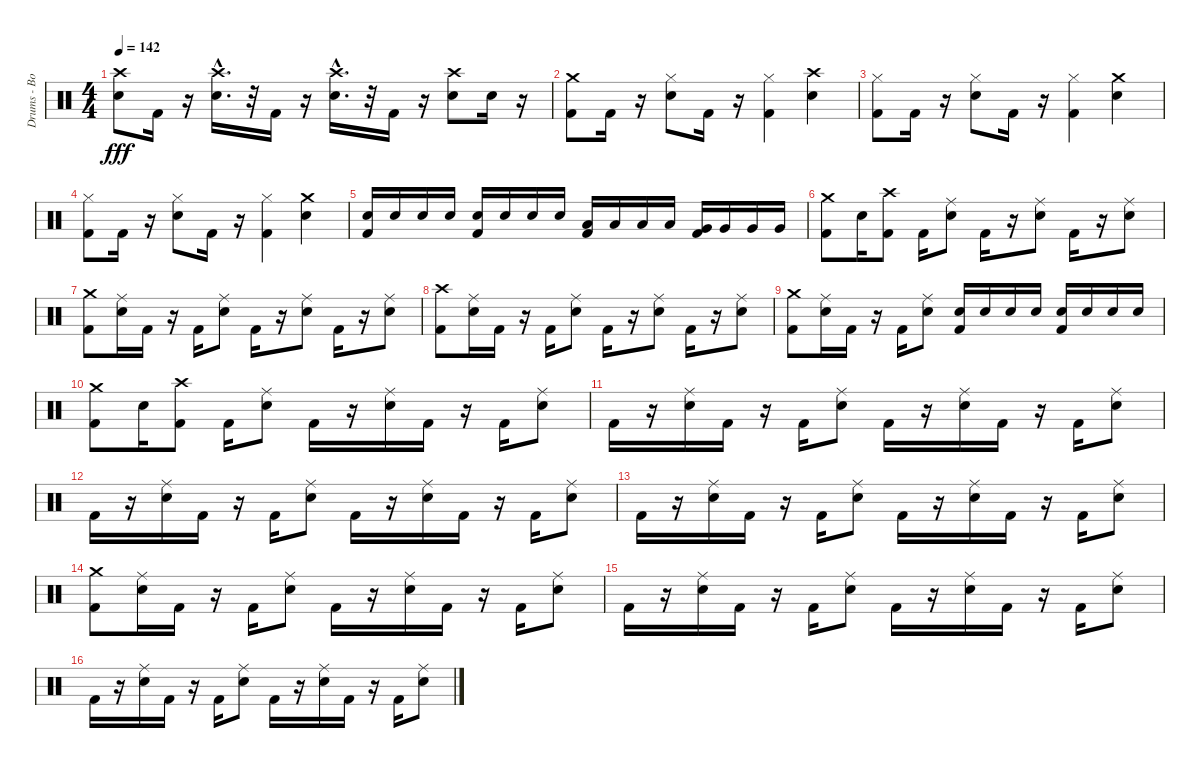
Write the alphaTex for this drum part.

\track ("Drums - Bobby Schayer" "Drums - Bo") {instrument percussion}
\staff {score}
\articulation defaults
\ts (4 4)
\tempo 142
\clef neutral
\ks c
("Electric Snare (hit)" "Crash high (hit)").8{dy fff} "Kick (hit) 2".16 r.16 ("Electric Snare (hit)" "Crash high (hit)"{hac}).16{d} r.32 "Kick (hit) 2".16 r.16 ("Electric Snare (hit)" "Crash high (hit)"{hac}).16{d} r.32 "Kick (hit) 2".16 r.16 ("Electric Snare (hit)" "Crash high (hit)").8 "Electric Snare (hit)".16 r.16 |
("Kick (hit) 2" "Crash medium (hit)").8 "Kick (hit) 2".16 r.16 ("Electric Snare (hit)" "Hi-Hat (closed)").8 "Kick (hit) 2".16 r.16 ("Kick (hit) 2" "Hi-Hat (closed)").4 ("Electric Snare (hit)" "Crash high (hit)").4 |
("Kick (hit) 2" "Hi-Hat (closed)").8 "Kick (hit) 2".16 r.16 ("Electric Snare (hit)" "Hi-Hat (closed)").8 "Kick (hit) 2".16 r.16 ("Kick (hit) 2" "Hi-Hat (closed)").4 ("Electric Snare (hit)" "Crash medium (hit)").4 |
("Kick (hit) 2" "Hi-Hat (closed)").8 "Kick (hit) 2".16 r.16 ("Electric Snare (hit)" "Hi-Hat (closed)").8 "Kick (hit) 2".16 r.16 ("Kick (hit) 2" "Hi-Hat (closed)").4 ("Electric Snare (hit)" "Crash medium (hit)").4 |
("Electric Snare (hit)" "Kick (hit) 2").16 "Electric Snare (hit)".16 "Electric Snare (hit)".16 "Electric Snare (hit)".16 ("Electric Snare (hit)" "Kick (hit) 2").16 "Electric Snare (hit)".16 "Electric Snare (hit)".16 "Electric Snare (hit)".16 ("Low Tom (hit)" "Kick (hit) 2").16 "Low Tom (hit)".16 "Low Tom (hit)".16 "Low Tom (hit)".16 ("Very Low Tom (hit)" "Kick (hit) 2").16 "Very Low Tom (hit)".16 "Very Low Tom (hit)".16 "Very Low Tom (hit)".16 |
("Kick (hit) 2" "Crash medium (hit)").8 "Electric Snare (hit)".16 ("Kick (hit) 2" "Crash high (hit)").8 "Kick (hit) 2".16 ("Electric Snare (hit)" "Ride (middle)").8 "Kick (hit) 2".16 r.16 ("Electric Snare (hit)" "Ride (middle)").8 "Kick (hit) 2".16 r.16 ("Electric Snare (hit)" "Ride (middle)").8 |
("Kick (hit) 2" "Crash medium (hit)").8 ("Electric Snare (hit)" "Ride (middle)").16 "Kick (hit) 2".16 r.16 "Kick (hit) 2".16 ("Electric Snare (hit)" "Ride (middle)").8 "Kick (hit) 2".16 r.16 ("Electric Snare (hit)" "Ride (middle)").8 "Kick (hit) 2".16 r.16 ("Electric Snare (hit)" "Ride (middle)").8 |
("Kick (hit) 2" "Crash high (hit)").8 ("Electric Snare (hit)" "Ride (middle)").16 "Kick (hit) 2".16 r.16 "Kick (hit) 2".16 ("Electric Snare (hit)" "Ride (middle)").8 "Kick (hit) 2".16 r.16 ("Electric Snare (hit)" "Ride (middle)").8 "Kick (hit) 2".16 r.16 ("Electric Snare (hit)" "Ride (middle)").8 |
("Kick (hit) 2" "Crash medium (hit)").8 ("Electric Snare (hit)" "Ride (middle)").16 "Kick (hit) 2".16 r.16 "Kick (hit) 2".16 ("Electric Snare (hit)" "Ride (middle)").8 ("Electric Snare (hit)" "Kick (hit) 2").16 "Electric Snare (hit)".16 "Electric Snare (hit)".16 "Electric Snare (hit)".16 ("Electric Snare (hit)" "Kick (hit) 2").16 "Electric Snare (hit)".16 "Electric Snare (hit)".16 "Electric Snare (hit)".16 |
("Kick (hit) 2" "Crash medium (hit)").8 "Electric Snare (hit)".16 ("Kick (hit) 2" "Crash high (hit)").8 "Kick (hit) 2".16 ("Electric Snare (hit)" "Ride (middle)").8 "Kick (hit) 2".16 r.16 ("Electric Snare (hit)" "Ride (middle)").16 "Kick (hit) 2".16 r.16 "Kick (hit) 2".16 ("Electric Snare (hit)" "Ride (middle)").8 |
"Kick (hit) 2".16 r.16 ("Electric Snare (hit)" "Ride (middle)").16 "Kick (hit) 2".16 r.16 "Kick (hit) 2".16 ("Electric Snare (hit)" "Ride (middle)").8 "Kick (hit) 2".16 r.16 ("Electric Snare (hit)" "Ride (middle)").16 "Kick (hit) 2".16 r.16 "Kick (hit) 2".16 ("Electric Snare (hit)" "Ride (middle)").8 |
"Kick (hit) 2".16 r.16 ("Electric Snare (hit)" "Ride (middle)").16 "Kick (hit) 2".16 r.16 "Kick (hit) 2".16 ("Electric Snare (hit)" "Ride (middle)").8 "Kick (hit) 2".16 r.16 ("Electric Snare (hit)" "Ride (middle)").16 "Kick (hit) 2".16 r.16 "Kick (hit) 2".16 ("Electric Snare (hit)" "Ride (middle)").8 |
"Kick (hit) 2".16 r.16 ("Electric Snare (hit)" "Ride (middle)").16 "Kick (hit) 2".16 r.16 "Kick (hit) 2".16 ("Electric Snare (hit)" "Ride (middle)").8 "Kick (hit) 2".16 r.16 ("Electric Snare (hit)" "Ride (middle)").16 "Kick (hit) 2".16 r.16 "Kick (hit) 2".16 ("Electric Snare (hit)" "Ride (middle)").8 |
("Kick (hit) 2" "Crash medium (hit)").8 ("Electric Snare (hit)" "Ride (middle)").16 "Kick (hit) 2".16 r.16 "Kick (hit) 2".16 ("Electric Snare (hit)" "Ride (middle)").8 "Kick (hit) 2".16 r.16 ("Electric Snare (hit)" "Ride (middle)").16 "Kick (hit) 2".16 r.16 "Kick (hit) 2".16 ("Electric Snare (hit)" "Ride (middle)").8 |
"Kick (hit) 2".16 r.16 ("Electric Snare (hit)" "Ride (middle)").16 "Kick (hit) 2".16 r.16 "Kick (hit) 2".16 ("Electric Snare (hit)" "Ride (middle)").8 "Kick (hit) 2".16 r.16 ("Electric Snare (hit)" "Ride (middle)").16 "Kick (hit) 2".16 r.16 "Kick (hit) 2".16 ("Electric Snare (hit)" "Ride (middle)").8 |
"Kick (hit) 2".16 r.16 ("Electric Snare (hit)" "Ride (middle)").16 "Kick (hit) 2".16 r.16 "Kick (hit) 2".16 ("Electric Snare (hit)" "Ride (middle)").8 "Kick (hit) 2".16 r.16 ("Electric Snare (hit)" "Ride (middle)").16 "Kick (hit) 2".16 r.16 "Kick (hit) 2".16 ("Electric Snare (hit)" "Ride (middle)").8
